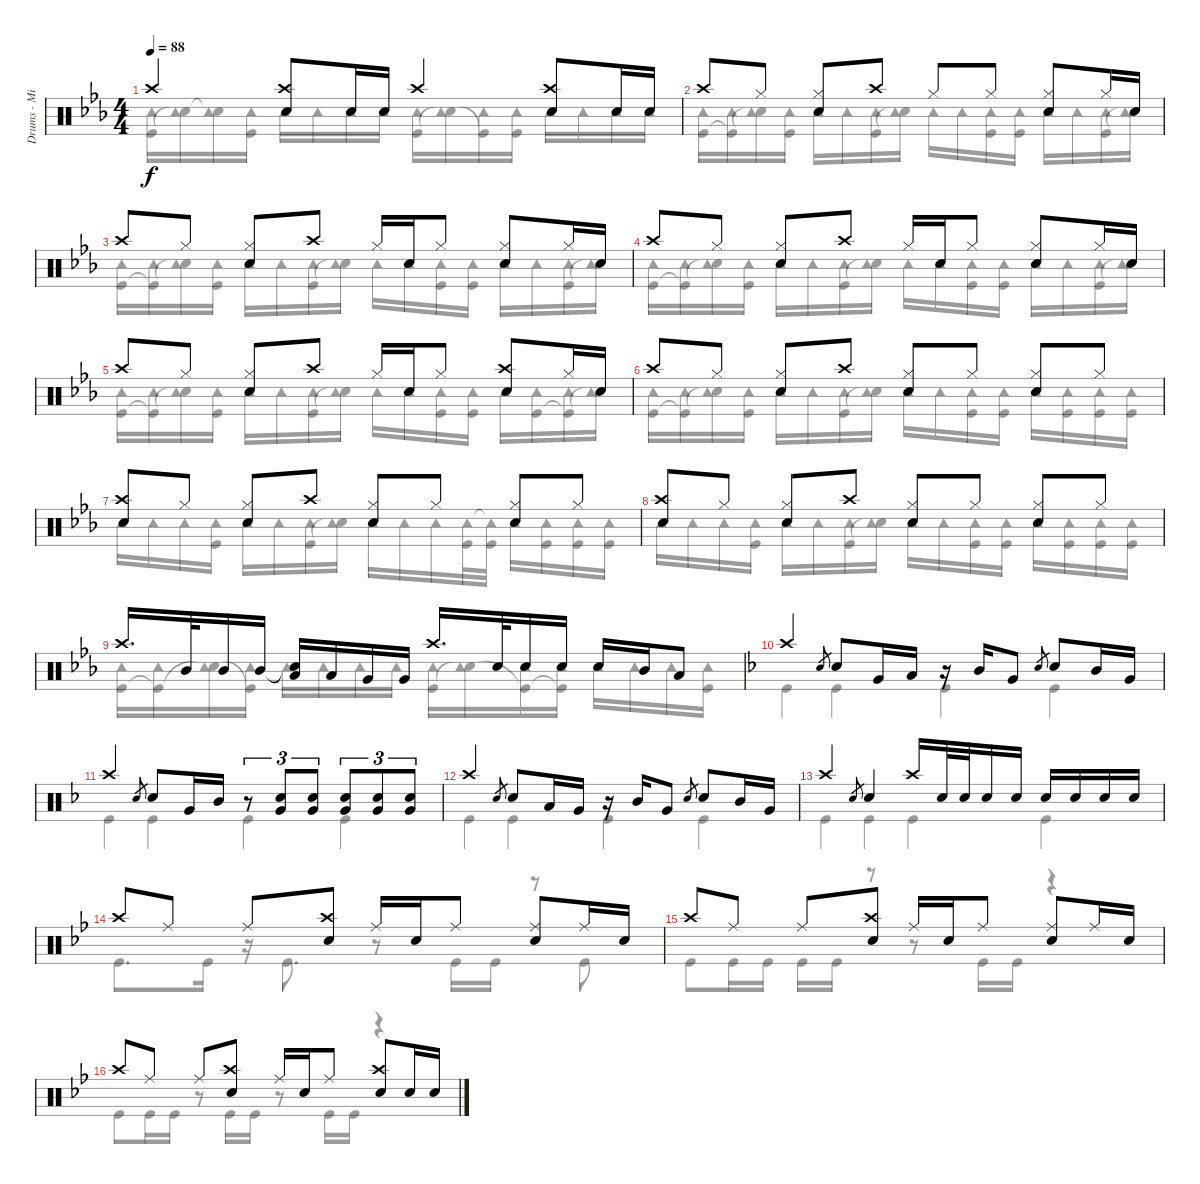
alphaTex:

\track ("Drums - Mike Portnoy" "Drums - Mi") {instrument percussion}
\staff {score}
\articulation defaults
\voice
\ts (4 4)
\tempo 88
\clef neutral
\ks eb "Crash high (hit)".4{dy f}
("Crash high (hit)" "Snare (hit) 2").8 "Snare (hit) 2".16 "Snare (hit) 2".16 "Crash high (hit)".4 ("Crash high (hit)" "Snare (hit) 2").8 "Snare (hit) 2".16 "Snare (hit) 2".16 |
"Crash high (hit)".8 "Hi-Hat (closed)".8 ("Hi-Hat (closed)" "Snare (hit) 2").8 "Crash high (hit)".8 "Hi-Hat (closed)".8 "Hi-Hat (closed)".8 ("Hi-Hat (closed)" "Snare (hit) 2").8 "Hi-Hat (closed)".16 "Snare (hit) 2".16 |
"Crash high (hit)".8 "Hi-Hat (closed)".8 ("Hi-Hat (closed)" "Snare (hit) 2").8 "Crash high (hit)".8 "Hi-Hat (closed)".16 "Snare (hit) 2".16 "Hi-Hat (closed)".8 ("Hi-Hat (closed)" "Snare (hit) 2").8 "Hi-Hat (closed)".16 "Snare (hit) 2".16 |
"Crash high (hit)".8 "Hi-Hat (closed)".8 ("Hi-Hat (closed)" "Snare (hit) 2").8 "Crash high (hit)".8 "Hi-Hat (closed)".16 "Snare (hit) 2".16 "Hi-Hat (closed)".8 ("Hi-Hat (closed)" "Snare (hit) 2").8 "Hi-Hat (closed)".16 "Snare (hit) 2".16 |
"Crash high (hit)".8 "Hi-Hat (closed)".8 ("Hi-Hat (closed)" "Snare (hit) 2").8 "Crash high (hit)".8 "Hi-Hat (closed)".16 "Snare (hit) 2".16 "Hi-Hat (closed)".8 ("Crash high (hit)" "Snare (hit) 2").8 "Hi-Hat (closed)".16 "Snare (hit) 2".16 |
"Crash high (hit)".8 "Hi-Hat (closed)".8 ("Hi-Hat (closed)" "Snare (hit) 2").8 "Crash high (hit)".8 ("Hi-Hat (closed)" "Snare (hit) 2").8 "Hi-Hat (closed)".8 ("Hi-Hat (closed)" "Snare (hit) 2").8 "Hi-Hat (closed)".8 |
("Crash high (hit)" "Snare (hit) 2").8 "Hi-Hat (closed)".8 ("Hi-Hat (closed)" "Snare (hit) 2").8 "Crash high (hit)".8 ("Hi-Hat (closed)" "Snare (hit) 2").8 "Hi-Hat (closed)".8 ("Hi-Hat (closed)" "Snare (hit) 2").8 "Hi-Hat (closed)".8 |
("Crash high (hit)" "Snare (hit) 2").8 "Hi-Hat (closed)".8 ("Hi-Hat (closed)" "Snare (hit) 2").8 "Crash high (hit)".8 ("Hi-Hat (closed)" "Snare (hit) 2").8 "Hi-Hat (closed)".8 ("Hi-Hat (closed)" "Snare (hit) 2").8 "Hi-Hat (closed)".8 |
"Crash high (hit)".16{d} "Mid Tom (hit)".32 "Mid Tom (hit)".16 "Mid Tom (hit)".16 ("Snare (hit)"{t} "Low Tom (hit)").16 "Low Tom (hit)".16 "Very Low Tom (hit)".16 "Very Low Tom (hit)".16 "Crash high (hit)".16{d} "Snare (hit) 2".32 "Snare (hit) 2".16 "Snare (hit) 2".16 "Snare (hit) 2".16 "Mid Tom (hit)".16 "Low Tom (hit)".8 |
\ks f "Crash high (hit)".4 "Snare (hit) 2".8{gr} "Snare (hit) 2".8 "Very Low Tom (hit)".16 "Low Tom (hit)".16
r.16 "Mid Tom (hit)".16 "Very Low Tom (hit)".8 "Snare (hit) 2".8{gr} "Snare (hit) 2".8 "Mid Tom (hit)".16 "Very Low Tom (hit)".16 |
"Crash high (hit)".4 "Snare (hit) 2".8{gr} "Snare (hit) 2".8 "Very Low Tom (hit)".16 "Mid Tom (hit)".16 r.8{tu (3 2)} ("Very Low Tom (hit)" "Snare (hit) 2").8{tu (3 2)} ("Very Low Tom (hit)" "Snare (hit) 2").8{tu (3 2)} ("Very Low Tom (hit)" "Snare (hit) 2").8{tu (3 2)} ("Very Low Tom (hit)" "Snare (hit) 2").8{tu (3 2)} ("Very Low Tom (hit)" "Snare (hit) 2").8{tu (3 2)} |
"Crash high (hit)".4 "Snare (hit) 2".8{gr} "Snare (hit) 2".8 "Low Tom (hit)".16 "Very Low Tom (hit)".16 r.16 "Mid Tom (hit)".16 "Very Low Tom (hit)".8 "Snare (hit) 2".8{gr} "Snare (hit) 2".8 "Mid Tom (hit)".16 "Very Low Tom (hit)".16 |
"Crash high (hit)".4 "Snare (hit) 2".8{gr} "Snare (hit) 2".4 "Crash high (hit)".16 "Snare (hit) 2".32 "Snare (hit) 2".32 "Snare (hit) 2".16 "Snare (hit) 2".16 "Snare (hit) 2".16 "Snare (hit) 2".16 "Snare (hit) 2".16 "Snare (hit) 2".16 |
\ks bb "Crash high (hit)".8 "Ride (middle)".8 "Ride (middle)".8
("Crash high (hit)" "Snare (hit) 2").8 "Ride (middle)".16 "Snare (hit) 2".16 "Ride (middle)".8 ("Ride (middle)" "Snare (hit) 2").8 "Ride (middle)".16 "Snare (hit) 2".16 |
"Crash high (hit)".8 "Ride (middle)".8 "Ride (middle)".8 ("Crash high (hit)" "Snare (hit) 2").8 "Ride (middle)".16 "Snare (hit) 2".16 "Ride (middle)".8 ("Ride (middle)" "Snare (hit) 2").8 "Ride (middle)".16 "Snare (hit) 2".16 |
"Crash high (hit)".8 "Ride (middle)".8 "Ride (middle)".8 ("Crash high (hit)" "Snare (hit) 2").8 "Ride (middle)".16 "Snare (hit) 2".16 "Ride (middle)".8 ("Crash high (hit)" "Snare (hit) 2").8 "Snare (hit) 2".16 "Snare (hit) 2".16
\voice
\clef neutral
\ottava regular
\simile none
\ks eb
("Kick (hit)" "Tambourine (hit)").16{dy f} ("Snare (hit)"{t} "Tambourine (hit)").16 ("Snare (hit)"{t} "Tambourine (hit)").16 ("Kick (hit)" "Tambourine (hit)").16 "Tambourine (hit)".16 "Tambourine (hit)".16 "Tambourine (hit)".16 "Tambourine (hit)".16 ("Kick (hit)" "Tambourine (hit)").16 ("Snare (hit)"{t} "Tambourine (hit)").16 ("Kick (hit)"{t} "Tambourine (hit)").16 ("Kick (hit)" "Tambourine (hit)").16 "Tambourine (hit)".16 "Tambourine (hit)".16 "Tambourine (hit)".16 "Tambourine (hit)".16 |
("Kick (hit)" "Tambourine (hit)").16 ("Kick (hit)"{t} "Tambourine (hit)").16 ("Snare (hit)"{t} "Tambourine (hit)").16 ("Kick (hit)" "Tambourine (hit)").16 "Tambourine (hit)".16 "Tambourine (hit)".16 ("Kick (hit)" "Tambourine (hit)").16 ("Snare (hit)"{t} "Tambourine (hit)").16 "Tambourine (hit)".16 "Tambourine (hit)".16 ("Kick (hit)" "Tambourine (hit)").16 ("Kick (hit)" "Tambourine (hit)").16 "Tambourine (hit)".16 "Tambourine (hit)".16 ("Kick (hit)" "Tambourine (hit)").16 ("Snare (hit)"{t} "Tambourine (hit)").16 |
("Kick (hit)" "Tambourine (hit)").16 ("Kick (hit)"{t} "Tambourine (hit)").16 ("Snare (hit)"{t} "Tambourine (hit)").16 ("Kick (hit)" "Tambourine (hit)").16 "Tambourine (hit)".16 "Tambourine (hit)".16 ("Kick (hit)" "Tambourine (hit)").16 ("Snare (hit)"{t} "Tambourine (hit)").16 "Tambourine (hit)".16 "Tambourine (hit)".16 ("Kick (hit)" "Tambourine (hit)").16 ("Kick (hit)" "Tambourine (hit)").16 "Tambourine (hit)".16 "Tambourine (hit)".16 ("Kick (hit)" "Tambourine (hit)").16 ("Snare (hit)"{t} "Tambourine (hit)").16 |
("Kick (hit)" "Tambourine (hit)").16 ("Kick (hit)"{t} "Tambourine (hit)").16 ("Snare (hit)"{t} "Tambourine (hit)").16 ("Kick (hit)" "Tambourine (hit)").16 "Tambourine (hit)".16 "Tambourine (hit)".16 ("Kick (hit)" "Tambourine (hit)").16 ("Snare (hit)"{t} "Tambourine (hit)").16 "Tambourine (hit)".16 "Tambourine (hit)".16 ("Kick (hit)" "Tambourine (hit)").16 ("Kick (hit)" "Tambourine (hit)").16 "Tambourine (hit)".16 "Tambourine (hit)".16 ("Kick (hit)" "Tambourine (hit)").16 ("Snare (hit)"{t} "Tambourine (hit)").16 |
("Kick (hit)" "Tambourine (hit)").16 ("Kick (hit)"{t} "Tambourine (hit)").16 ("Snare (hit)"{t} "Tambourine (hit)").16 ("Kick (hit)" "Tambourine (hit)").16 "Tambourine (hit)".16 "Tambourine (hit)".16 ("Kick (hit)" "Tambourine (hit)").16 ("Snare (hit)"{t} "Tambourine (hit)").16 "Tambourine (hit)".16 "Tambourine (hit)".16 ("Kick (hit)" "Tambourine (hit)").16 ("Kick (hit)" "Tambourine (hit)").16 "Tambourine (hit)".16 ("Kick (hit)" "Tambourine (hit)").16 ("Kick (hit)"{t} "Tambourine (hit)").16 ("Snare (hit)"{t} "Tambourine (hit)").16 |
("Kick (hit)" "Tambourine (hit)").16 ("Kick (hit)"{t} "Tambourine (hit)").16 ("Snare (hit)"{t} "Tambourine (hit)").16 ("Kick (hit)" "Tambourine (hit)").16 "Tambourine (hit)".16 "Tambourine (hit)".16 ("Kick (hit)" "Tambourine (hit)").16 ("Snare (hit)"{t} "Tambourine (hit)").16 "Tambourine (hit)".16 "Tambourine (hit)".16 ("Kick (hit)" "Tambourine (hit)").16 ("Kick (hit)" "Tambourine (hit)").16 "Tambourine (hit)".16 ("Kick (hit)" "Tambourine (hit)").16 ("Kick (hit)" "Tambourine (hit)").16 ("Kick (hit)" "Tambourine (hit)").16 |
"Tambourine (hit)".16 "Tambourine (hit)".16 "Tambourine (hit)".16 ("Kick (hit)" "Tambourine (hit)").16 "Tambourine (hit)".16 "Tambourine (hit)".16 ("Kick (hit)" "Tambourine (hit)").16 ("Snare (hit)"{t} "Tambourine (hit)").16 "Tambourine (hit)".16 "Tambourine (hit)".16 "Tambourine (hit)".16 ("Kick (hit)" "Tambourine (hit)").32 ("Kick (hit)" "Tambourine (hit)"{t}).32 "Tambourine (hit)".16 ("Kick (hit)" "Tambourine (hit)").16 ("Kick (hit)" "Tambourine (hit)").16 ("Kick (hit)" "Tambourine (hit)").16 |
"Tambourine (hit)".16 "Tambourine (hit)".16 "Tambourine (hit)".16 ("Kick (hit)" "Tambourine (hit)").16 "Tambourine (hit)".16 "Tambourine (hit)".16 ("Kick (hit)" "Tambourine (hit)").16 ("Snare (hit)"{t} "Tambourine (hit)").16 "Tambourine (hit)".16 "Tambourine (hit)".16 ("Kick (hit)" "Tambourine (hit)").16 ("Kick (hit)" "Tambourine (hit)").16 "Tambourine (hit)".16 ("Kick (hit)" "Tambourine (hit)").16 ("Kick (hit)" "Tambourine (hit)").16 ("Kick (hit)" "Tambourine (hit)").16 |
("Kick (hit)" "Tambourine (hit)").16 ("Kick (hit)"{t} "Tambourine (hit)").16 ("Snare (hit)"{t} "Tambourine (hit)").16 ("Kick (hit)"{t} "Tambourine (hit)").16 "Tambourine (hit)".16 "Tambourine (hit)".16 "Tambourine (hit)".16 "Tambourine (hit)".16 ("Kick (hit)" "Tambourine (hit)").16 ("Snare (hit)"{t} "Tambourine (hit)").16 ("Kick (hit)"{t} "Tambourine (hit)").16 ("Kick (hit)"{t} "Tambourine (hit)").16 "Tambourine (hit)".16 "Tambourine (hit)".16 "Tambourine (hit)".16 ("Kick (hit)" "Tambourine (hit)").16 |
\ks f "Kick (hit)".4 "Kick (hit)".4 "Kick (hit)".4 "Kick (hit)".4
|
"Kick (hit)".4 "Kick (hit)".4 "Kick (hit)".4 "Kick (hit)".4 |
"Kick (hit)".4 "Kick (hit)".4 "Kick (hit)".4 "Kick (hit)".4 |
"Kick (hit)".4 "Kick (hit)".4 "Kick (hit)".4 "Kick (hit)".4 |
\ks bb "Kick (hit)".8{d} "Kick (hit)".16
r.16 "Kick (hit)".8{d} r.8 "Kick (hit)".16 "Kick (hit)".16 r.8 "Kick (hit)".8 |
"Kick (hit)".8 "Kick (hit)".16 "Kick (hit)".16 "Kick (hit)".16 "Kick (hit)".16 r.8 r.8 "Kick (hit)".16 "Kick (hit)".16 r.4 |
"Kick (hit)".8 "Kick (hit)".16 "Kick (hit)".16 r.8 "Kick (hit)".16 "Kick (hit)".16 r.8 "Kick (hit)".16 "Kick (hit)".16 r.4
